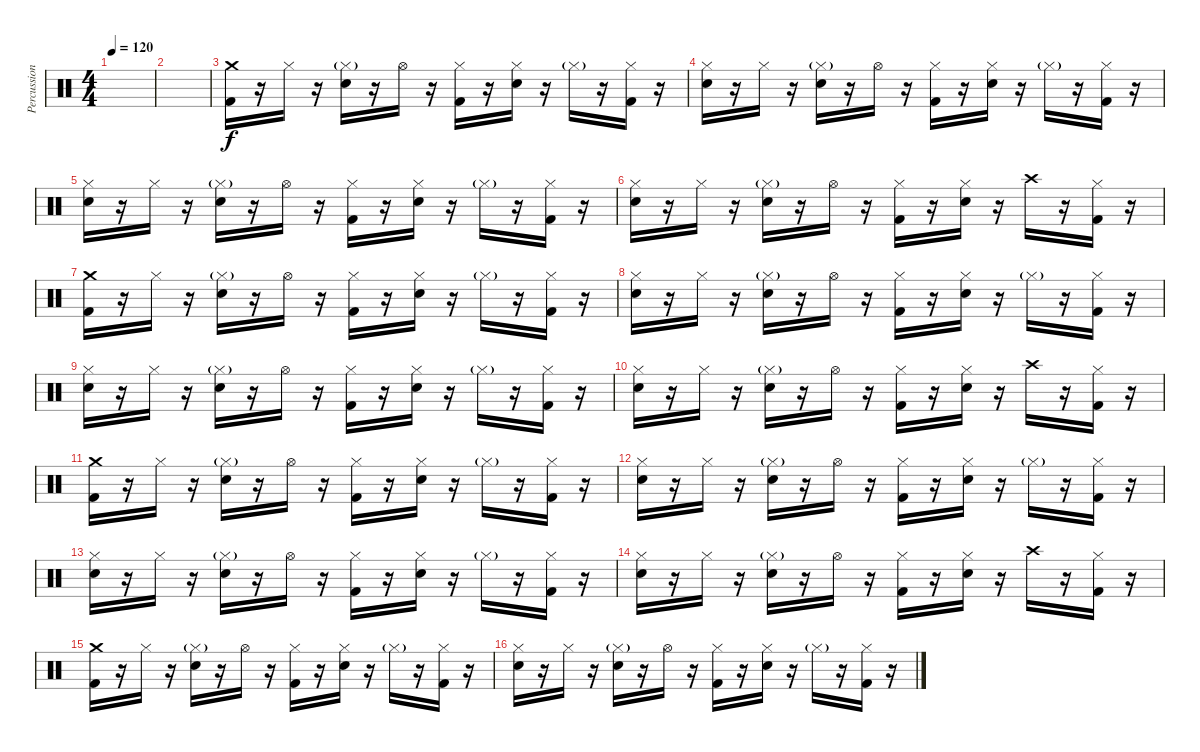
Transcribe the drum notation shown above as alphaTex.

\track ("Percussion" "Percussion") {instrument percussion}
\staff {score}
\articulation defaults
\ts (4 4)
\tempo 120
\clef neutral
\ks c
|
|
("Crash medium (hit)" "Kick (hit) 2").16 r.16 "Hi-Hat (closed)".16 r.16 ("Hi-Hat (closed)"{g} "Electric Snare (hit)").16 r.16 "Hi-Hat (open)".16 r.16 ("Hi-Hat (closed)" "Kick (hit) 2").16 r.16 ("Hi-Hat (closed)" "Electric Snare (hit)").16 r.16 "Hi-Hat (closed)"{g}.16 r.16 ("Hi-Hat (closed)" "Kick (hit) 2").16 r.16 |
("Hi-Hat (closed)" "Electric Snare (hit)").16 r.16 "Hi-Hat (closed)".16 r.16 ("Hi-Hat (closed)"{g} "Electric Snare (hit)").16 r.16 "Hi-Hat (open)".16 r.16 ("Hi-Hat (closed)" "Kick (hit) 2").16 r.16 ("Hi-Hat (closed)" "Electric Snare (hit)").16 r.16 "Hi-Hat (closed)"{g}.16 r.16 ("Hi-Hat (closed)" "Kick (hit) 2").16 r.16 |
("Hi-Hat (closed)" "Electric Snare (hit)").16 r.16 "Hi-Hat (closed)".16 r.16 ("Hi-Hat (closed)"{g} "Electric Snare (hit)").16 r.16 "Hi-Hat (open)".16 r.16 ("Hi-Hat (closed)" "Kick (hit) 2").16 r.16 ("Hi-Hat (closed)" "Electric Snare (hit)").16 r.16 "Hi-Hat (closed)"{g}.16 r.16 ("Hi-Hat (closed)" "Kick (hit) 2").16 r.16 |
("Hi-Hat (closed)" "Electric Snare (hit)").16 r.16 "Hi-Hat (closed)".16 r.16 ("Hi-Hat (closed)"{g} "Electric Snare (hit)").16 r.16 "Hi-Hat (open)".16 r.16 ("Hi-Hat (closed)" "Kick (hit) 2").16 r.16 ("Hi-Hat (closed)" "Electric Snare (hit)").16 r.16 "Crash high (hit)".16 r.16 ("Hi-Hat (closed)" "Kick (hit) 2").16 r.16 |
("Crash medium (hit)" "Kick (hit) 2").16 r.16 "Hi-Hat (closed)".16 r.16 ("Hi-Hat (closed)"{g} "Electric Snare (hit)").16 r.16 "Hi-Hat (open)".16 r.16 ("Hi-Hat (closed)" "Kick (hit) 2").16 r.16 ("Hi-Hat (closed)" "Electric Snare (hit)").16 r.16 "Hi-Hat (closed)"{g}.16 r.16 ("Hi-Hat (closed)" "Kick (hit) 2").16 r.16 |
("Hi-Hat (closed)" "Electric Snare (hit)").16 r.16 "Hi-Hat (closed)".16 r.16 ("Hi-Hat (closed)"{g} "Electric Snare (hit)").16 r.16 "Hi-Hat (open)".16 r.16 ("Hi-Hat (closed)" "Kick (hit) 2").16 r.16 ("Hi-Hat (closed)" "Electric Snare (hit)").16 r.16 "Hi-Hat (closed)"{g}.16 r.16 ("Hi-Hat (closed)" "Kick (hit) 2").16 r.16 |
("Hi-Hat (closed)" "Electric Snare (hit)").16 r.16 "Hi-Hat (closed)".16 r.16 ("Hi-Hat (closed)"{g} "Electric Snare (hit)").16 r.16 "Hi-Hat (open)".16 r.16 ("Hi-Hat (closed)" "Kick (hit) 2").16 r.16 ("Hi-Hat (closed)" "Electric Snare (hit)").16 r.16 "Hi-Hat (closed)"{g}.16 r.16 ("Hi-Hat (closed)" "Kick (hit) 2").16 r.16 |
("Hi-Hat (closed)" "Electric Snare (hit)").16 r.16 "Hi-Hat (closed)".16 r.16 ("Hi-Hat (closed)"{g} "Electric Snare (hit)").16 r.16 "Hi-Hat (open)".16 r.16 ("Hi-Hat (closed)" "Kick (hit) 2").16 r.16 ("Hi-Hat (closed)" "Electric Snare (hit)").16 r.16 "Crash high (hit)".16 r.16 ("Hi-Hat (closed)" "Kick (hit) 2").16 r.16 |
("Crash medium (hit)" "Kick (hit) 2").16 r.16 "Hi-Hat (closed)".16 r.16 ("Hi-Hat (closed)"{g} "Electric Snare (hit)").16 r.16 "Hi-Hat (open)".16 r.16 ("Hi-Hat (closed)" "Kick (hit) 2").16 r.16 ("Hi-Hat (closed)" "Electric Snare (hit)").16 r.16 "Hi-Hat (closed)"{g}.16 r.16 ("Hi-Hat (closed)" "Kick (hit) 2").16 r.16 |
("Hi-Hat (closed)" "Electric Snare (hit)").16 r.16 "Hi-Hat (closed)".16 r.16 ("Hi-Hat (closed)"{g} "Electric Snare (hit)").16 r.16 "Hi-Hat (open)".16 r.16 ("Hi-Hat (closed)" "Kick (hit) 2").16 r.16 ("Hi-Hat (closed)" "Electric Snare (hit)").16 r.16 "Hi-Hat (closed)"{g}.16 r.16 ("Hi-Hat (closed)" "Kick (hit) 2").16 r.16 |
("Hi-Hat (closed)" "Electric Snare (hit)").16 r.16 "Hi-Hat (closed)".16 r.16 ("Hi-Hat (closed)"{g} "Electric Snare (hit)").16 r.16 "Hi-Hat (open)".16 r.16 ("Hi-Hat (closed)" "Kick (hit) 2").16 r.16 ("Hi-Hat (closed)" "Electric Snare (hit)").16 r.16 "Hi-Hat (closed)"{g}.16 r.16 ("Hi-Hat (closed)" "Kick (hit) 2").16 r.16 |
("Hi-Hat (closed)" "Electric Snare (hit)").16 r.16 "Hi-Hat (closed)".16 r.16 ("Hi-Hat (closed)"{g} "Electric Snare (hit)").16 r.16 "Hi-Hat (open)".16 r.16 ("Hi-Hat (closed)" "Kick (hit) 2").16 r.16 ("Hi-Hat (closed)" "Electric Snare (hit)").16 r.16 "Crash high (hit)".16 r.16 ("Hi-Hat (closed)" "Kick (hit) 2").16 r.16 |
("Crash medium (hit)" "Kick (hit) 2").16 r.16 "Hi-Hat (closed)".16 r.16 ("Hi-Hat (closed)"{g} "Electric Snare (hit)").16 r.16 "Hi-Hat (open)".16 r.16 ("Hi-Hat (closed)" "Kick (hit) 2").16 r.16 ("Hi-Hat (closed)" "Electric Snare (hit)").16 r.16 "Hi-Hat (closed)"{g}.16 r.16 ("Hi-Hat (closed)" "Kick (hit) 2").16 r.16 |
("Hi-Hat (closed)" "Electric Snare (hit)").16 r.16 "Hi-Hat (closed)".16 r.16 ("Hi-Hat (closed)"{g} "Electric Snare (hit)").16 r.16 "Hi-Hat (open)".16 r.16 ("Hi-Hat (closed)" "Kick (hit) 2").16 r.16 ("Hi-Hat (closed)" "Electric Snare (hit)").16 r.16 "Hi-Hat (closed)"{g}.16 r.16 ("Hi-Hat (closed)" "Kick (hit) 2").16 r.16
